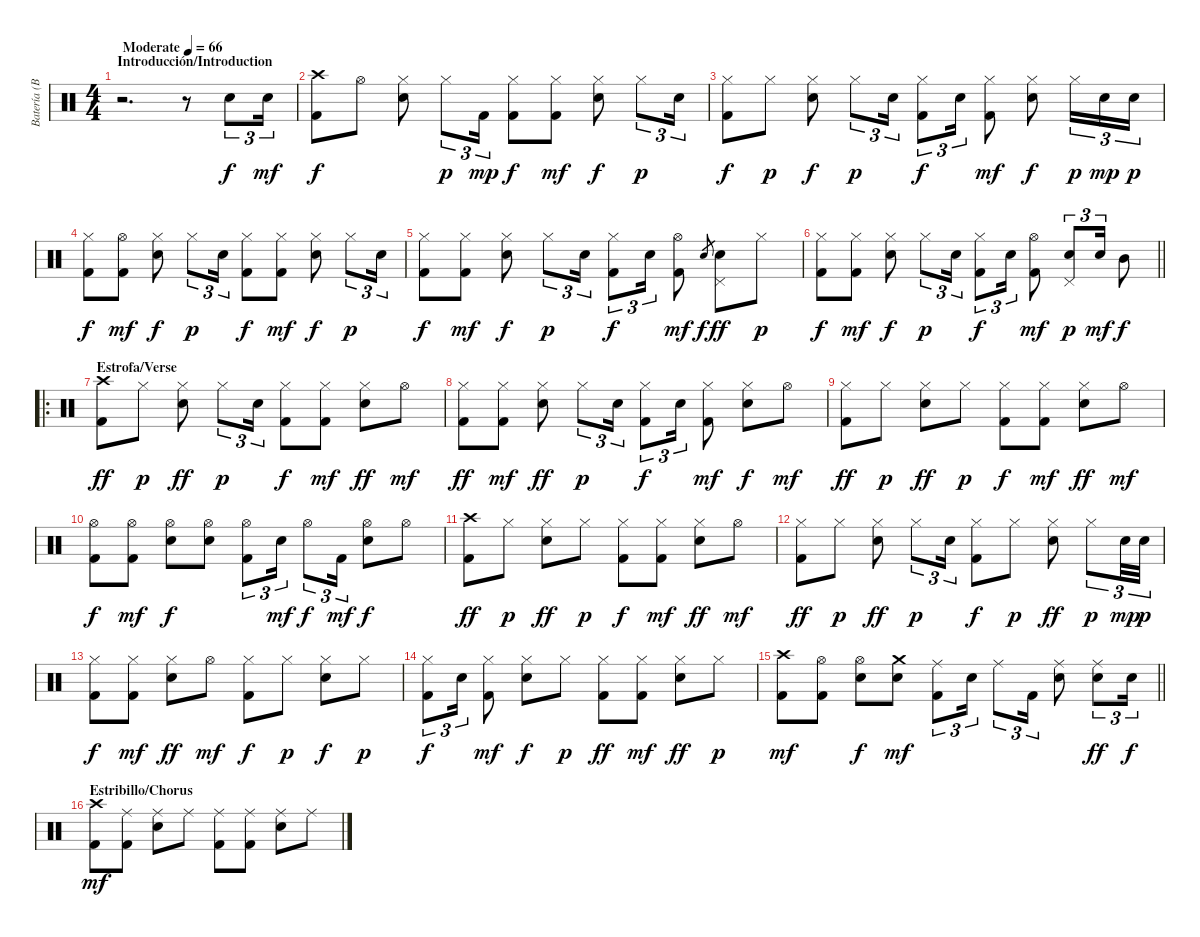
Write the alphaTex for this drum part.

\track ("Batería (Brit Turner)" "Batería (B") {instrument percussion}
\staff {score}
\articulation defaults
\ts (4 4)
\section ("" "Introducción/Introduction")
\tempo (66 "Moderate")
\clef neutral
\ks c
r.2{d dy f} r.8 "Snare (hit) 2".8{tu (3 2)} "Snare (hit) 2".16{tu (3 2) dy mf} |
("Crash high (hit)" "Kick (hit) 2").8{dy f} "Hi-Hat (open)".8 ("Hi-Hat (closed)" "Snare (hit) 2").8 "Hi-Hat (closed)".8{tu (3 2) dy p} "Kick (hit) 2".16{tu (3 2) dy mp} ("Hi-Hat (closed)" "Kick (hit) 2").8{dy f} ("Hi-Hat (closed)" "Kick (hit) 2").8{dy mf} ("Hi-Hat (closed)" "Snare (hit) 2").8{dy f} "Hi-Hat (closed)".8{tu (3 2) dy p} "Snare (hit) 2".16{tu (3 2)} |
("Hi-Hat (closed)" "Kick (hit) 2").8{dy f} "Hi-Hat (closed)".8{dy p} ("Hi-Hat (closed)" "Snare (hit) 2").8{dy f} "Hi-Hat (closed)".8{tu (3 2) dy p} "Snare (hit) 2".16{tu (3 2)} ("Hi-Hat (closed)" "Kick (hit) 2").8{tu (3 2) dy f} "Snare (hit) 2".16{tu (3 2)} ("Hi-Hat (closed)" "Kick (hit) 2").8{dy mf} ("Hi-Hat (closed)" "Snare (hit) 2").8{dy f} "Hi-Hat (closed)".16{tu (3 2) dy p} "Snare (hit) 2".16{tu (3 2) dy mp} "Snare (hit) 2".16{tu (3 2) dy p} |
("Hi-Hat (closed)" "Kick (hit) 2").8{dy f} ("Hi-Hat (open)" "Kick (hit) 2").8{dy mf} ("Hi-Hat (closed)" "Snare (hit) 2").8{dy f} "Hi-Hat (closed)".8{tu (3 2) dy p} "Snare (hit) 2".16{tu (3 2)} ("Hi-Hat (closed)" "Kick (hit) 2").8{dy f} ("Hi-Hat (closed)" "Kick (hit) 2").8{dy mf} ("Hi-Hat (closed)" "Snare (hit) 2").8{dy f} "Hi-Hat (closed)".8{tu (3 2) dy p} "Snare (hit) 2".16{tu (3 2)} |
("Hi-Hat (closed)" "Kick (hit) 2").8{dy f} ("Hi-Hat (closed)" "Kick (hit) 2").8{dy mf} ("Hi-Hat (closed)" "Snare (hit) 2").8{dy f} "Hi-Hat (closed)".8{tu (3 2) dy p} "Snare (hit) 2".16{tu (3 2)} ("Hi-Hat (closed)" "Kick (hit) 2").8{tu (3 2) dy f} "Snare (hit) 2".16{tu (3 2)} ("Hi-Hat (open)" "Kick (hit) 2").8{dy mf} "Snare (hit) 2".8{gr dy f} ("Pedal Hi-Hat (hit)" "Snare (hit) 2").8{dy ff} "Hi-Hat (closed)".8{dy p} |
\barLineRight lightlight
("Hi-Hat (closed)" "Kick (hit) 2").8{dy f} ("Hi-Hat (closed)" "Kick (hit) 2").8{dy mf} ("Hi-Hat (closed)" "Snare (hit) 2").8{dy f} "Hi-Hat (closed)".8{tu (3 2) dy p} "Snare (hit) 2".16{tu (3 2)} ("Hi-Hat (closed)" "Kick (hit) 2").8{tu (3 2) dy f} "Snare (hit) 2".16{tu (3 2)} ("Hi-Hat (open)" "Kick (hit) 2").8{dy mf} ("Pedal Hi-Hat (hit)" "Snare (hit) 2").8{tu (3 2) dy p} "Snare (hit) 2".16{tu (3 2) dy mf} "Mid Tom (hit)".8{dy f} |
\ro
\section ("" "Estrofa/Verse")
("Crash high (hit)" "Kick (hit) 2").8{dy ff} "Hi-Hat (closed)".8{dy p} ("Hi-Hat (closed)" "Snare (hit) 2").8{dy ff} "Hi-Hat (closed)".8{tu (3 2) dy p} "Snare (hit) 2".16{tu (3 2)} ("Hi-Hat (closed)" "Kick (hit) 2").8{dy f} ("Hi-Hat (closed)" "Kick (hit) 2").8{dy mf} ("Hi-Hat (closed)" "Snare (hit) 2").8{dy ff} "Hi-Hat (open)".8{dy mf} |
("Hi-Hat (closed)" "Kick (hit) 2").8{dy ff} ("Hi-Hat (closed)" "Kick (hit) 2").8{dy mf} ("Hi-Hat (closed)" "Snare (hit) 2").8{dy ff} "Hi-Hat (closed)".8{tu (3 2) dy p} "Snare (hit) 2".16{tu (3 2)} ("Hi-Hat (closed)" "Kick (hit) 2").8{tu (3 2) dy f} "Snare (hit) 2".16{tu (3 2)} ("Hi-Hat (closed)" "Kick (hit) 2").8{dy mf} ("Hi-Hat (closed)" "Snare (hit) 2").8{dy f} "Hi-Hat (open)".8{dy mf} |
("Hi-Hat (closed)" "Kick (hit) 2").8{dy ff} "Hi-Hat (closed)".8{dy p} ("Hi-Hat (closed)" "Snare (hit) 2").8{dy ff} "Hi-Hat (closed)".8{dy p} ("Hi-Hat (closed)" "Kick (hit) 2").8{dy f} ("Hi-Hat (closed)" "Kick (hit) 2").8{dy mf} ("Hi-Hat (closed)" "Snare (hit) 2").8{dy ff} "Hi-Hat (open)".8{dy mf} |
("Hi-Hat (open)" "Kick (hit) 2").8{dy f} ("Hi-Hat (open)" "Kick (hit) 2").8{dy mf} ("Hi-Hat (open)" "Snare (hit) 2").8{dy f} ("Hi-Hat (open)" "Snare (hit) 2").8 ("Hi-Hat (open)" "Kick (hit) 2").8{tu (3 2)} "Snare (hit) 2".16{tu (3 2) dy mf} "Hi-Hat (open)".8{tu (3 2) dy f} "Kick (hit) 2".16{tu (3 2) dy mf} ("Hi-Hat (open)" "Snare (hit) 2").8{dy f} "Hi-Hat (open)".8 |
("Crash high (hit)" "Kick (hit) 2").8{dy ff} "Hi-Hat (closed)".8{dy p} ("Hi-Hat (closed)" "Snare (hit) 2").8{dy ff} "Hi-Hat (closed)".8{dy p} ("Hi-Hat (closed)" "Kick (hit) 2").8{dy f} ("Hi-Hat (closed)" "Kick (hit) 2").8{dy mf} ("Hi-Hat (closed)" "Snare (hit) 2").8{dy ff} "Hi-Hat (open)".8{dy mf} |
("Hi-Hat (closed)" "Kick (hit) 2").8{dy ff} "Hi-Hat (closed)".8{dy p} ("Hi-Hat (closed)" "Snare (hit) 2").8{dy ff} "Hi-Hat (closed)".8{tu (3 2) dy p} "Snare (hit) 2".16{tu (3 2)} ("Hi-Hat (closed)" "Kick (hit) 2").8{dy f} "Hi-Hat (closed)".8{dy p} ("Hi-Hat (closed)" "Snare (hit) 2").8{dy ff} "Hi-Hat (closed)".8{tu (3 2) dy p} "Snare (hit) 2".32{tu (3 2) dy mp} "Snare (hit) 2".32{tu (3 2) dy p} |
("Hi-Hat (closed)" "Kick (hit) 2").8{dy f} ("Hi-Hat (closed)" "Kick (hit) 2").8{dy mf} ("Hi-Hat (closed)" "Snare (hit) 2").8{dy ff} "Hi-Hat (open)".8{dy mf} ("Hi-Hat (closed)" "Kick (hit) 2").8{dy f} "Hi-Hat (closed)".8{dy p} ("Hi-Hat (closed)" "Snare (hit) 2").8{dy f} "Hi-Hat (closed)".8{dy p} |
("Hi-Hat (closed)" "Kick (hit) 2").8{tu (3 2) dy f} "Snare (hit) 2".16{tu (3 2)} ("Hi-Hat (closed)" "Kick (hit) 2").8{dy mf} ("Hi-Hat (closed)" "Snare (hit) 2").8{dy f} "Hi-Hat (closed)".8{dy p} ("Hi-Hat (closed)" "Kick (hit) 2").8{dy ff} ("Hi-Hat (closed)" "Kick (hit) 2").8{dy mf} ("Hi-Hat (closed)" "Snare (hit) 2").8{dy ff} "Hi-Hat (closed)".8{dy p} |
\barLineRight lightlight
("Crash high (hit)" "Kick (hit) 2").8{dy mf} ("Hi-Hat (open)" "Kick (hit) 2").8 ("Hi-Hat (open)" "Snare (hit) 2").8{dy f} ("Crash medium (hit)" "Snare (hit) 2").8{dy mf} ("Ride (middle)" "Kick (hit) 2").8{tu (3 2)} "Snare (hit) 2".16{tu (3 2)} "Ride (middle)".8{tu (3 2)} "Kick (hit) 2".16{tu (3 2)} ("Ride (middle)" "Snare (hit) 2").8 ("Ride (middle)" "Snare (hit) 2").8{tu (3 2) dy ff} "Snare (hit) 2".16{tu (3 2) dy f} |
\section ("" "Estribillo/Chorus")
("Crash high (hit)" "Kick (hit) 2").8{dy mf} ("Ride (middle)" "Kick (hit) 2").8 ("Ride (middle)" "Snare (hit) 2").8 "Ride (middle)".8 ("Ride (middle)" "Kick (hit) 2").8 ("Ride (middle)" "Kick (hit) 2").8 ("Ride (middle)" "Snare (hit) 2").8 "Ride (middle)".8
